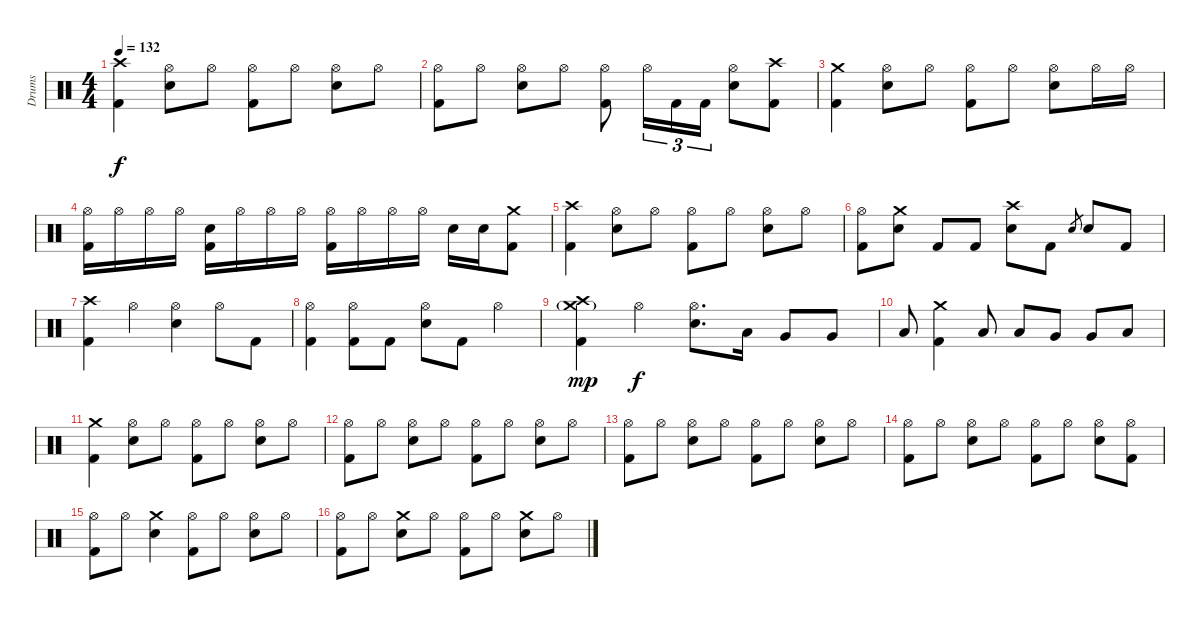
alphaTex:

\track ("Drums" "Drums") {instrument percussion}
\staff {score}
\articulation defaults
\ts (4 4)
\tempo 132
\clef neutral
\ks c
("Crash high (hit)" "Kick (hit) 2").4{dy f} ("Hi-Hat (open)" "Snare (hit) 2").8 "Hi-Hat (open)".8 ("Hi-Hat (open)" "Kick (hit) 2").8 "Hi-Hat (open)".8 ("Hi-Hat (open)" "Snare (hit) 2").8 "Hi-Hat (open)".8 |
("Hi-Hat (open)" "Kick (hit) 2").8 "Hi-Hat (open)".8 ("Hi-Hat (open)" "Snare (hit) 2").8 "Hi-Hat (open)".8 ("Hi-Hat (open)" "Kick (hit) 2").8 "Hi-Hat (open)".16{tu (3 2)} "Kick (hit) 2".16{tu (3 2)} "Kick (hit) 2".16{tu (3 2)} ("Hi-Hat (open)" "Snare (hit) 2").8 ("Crash high (hit)" "Kick (hit) 2").8 |
("Crash medium (hit)" "Kick (hit) 2").4 ("Hi-Hat (open)" "Snare (hit) 2").8 "Hi-Hat (open)".8 ("Hi-Hat (open)" "Kick (hit) 2").8 "Hi-Hat (open)".8 ("Hi-Hat (open)" "Snare (hit) 2").8 "Hi-Hat (open)".16 "Hi-Hat (open)".16 |
("Hi-Hat (open)" "Kick (hit) 2").16 "Hi-Hat (open)".16 "Hi-Hat (open)".16 "Hi-Hat (open)".16 ("Snare (hit) 2" "Kick (hit) 2").16 "Hi-Hat (open)".16 "Hi-Hat (open)".16 "Hi-Hat (open)".16 ("Hi-Hat (open)" "Kick (hit) 2").16 "Hi-Hat (open)".16 "Hi-Hat (open)".16 "Hi-Hat (open)".16 "Snare (hit) 2".16 "Snare (hit) 2".16 ("Crash medium (hit)" "Kick (hit) 2").8 |
("Crash high (hit)" "Kick (hit) 2").4 ("Hi-Hat (open)" "Snare (hit) 2").8 "Hi-Hat (open)".8 ("Hi-Hat (open)" "Kick (hit) 2").8 "Hi-Hat (open)".8 ("Hi-Hat (open)" "Snare (hit) 2").8 "Hi-Hat (open)".8 |
("Hi-Hat (open)" "Kick (hit) 2").8 ("Crash medium (hit)" "Snare (hit) 2").8 "Kick (hit) 2".8 "Kick (hit) 2".8 ("Crash high (hit)" "Snare (hit) 2").8 "Kick (hit) 2".8 "Snare (hit) 2".8{gr} "Snare (hit) 2".8 "Kick (hit) 2".8 |
("Crash high (hit)" "Kick (hit) 2").4 "Hi-Hat (open)".4 ("Hi-Hat (open)" "Snare (hit) 2").4 "Hi-Hat (open)".8 "Kick (hit) 2".8 |
("Hi-Hat (open)" "Kick (hit) 2").4 ("Hi-Hat (open)" "Kick (hit) 2").8 "Kick (hit) 2".8 ("Hi-Hat (open)" "Snare (hit) 2").8 "Kick (hit) 2".8 "Hi-Hat (open)".4 |
("Crash high (hit)" "Crash medium (hit)"{g} "Kick (hit) 2").4{dy mp} "Hi-Hat (open)".4{dy f} ("Hi-Hat (open)" "Snare (hit) 2").8{d} "Low Tom (hit)".16 "Very Low Tom (hit)".8 "Very Low Tom (hit)".8 |
"Low Floor Tom (hit)".8 ("Crash medium (hit)" "Kick (hit) 2").4 "Low Tom (hit)".8 "Low Tom (hit)".8 "Very Low Tom (hit)".8 "Very Low Tom (hit)".8 "Low Floor Tom (hit)".8 |
("Crash medium (hit)" "Kick (hit) 2").4 ("Hi-Hat (open)" "Snare (hit) 2").8 "Hi-Hat (open)".8 ("Hi-Hat (open)" "Kick (hit) 2").8 "Hi-Hat (open)".8 ("Hi-Hat (open)" "Snare (hit) 2").8 "Hi-Hat (open)".8 |
("Hi-Hat (open)" "Kick (hit) 2").8 "Hi-Hat (open)".8 ("Hi-Hat (open)" "Snare (hit) 2").8 "Hi-Hat (open)".8 ("Hi-Hat (open)" "Kick (hit) 2").8 "Hi-Hat (open)".8 ("Hi-Hat (open)" "Snare (hit) 2").8 "Hi-Hat (open)".8 |
("Hi-Hat (open)" "Kick (hit) 2").8 "Hi-Hat (open)".8 ("Hi-Hat (open)" "Snare (hit) 2").8 "Hi-Hat (open)".8 ("Hi-Hat (open)" "Kick (hit) 2").8 "Hi-Hat (open)".8 ("Hi-Hat (open)" "Snare (hit) 2").8 "Hi-Hat (open)".8 |
("Hi-Hat (open)" "Kick (hit) 2").8 "Hi-Hat (open)".8 ("Hi-Hat (open)" "Snare (hit) 2").8 "Hi-Hat (open)".8 ("Hi-Hat (open)" "Kick (hit) 2").8 "Hi-Hat (open)".8 ("Hi-Hat (open)" "Snare (hit) 2").8 ("Hi-Hat (open)" "Kick (hit) 2").8 |
("Hi-Hat (open)" "Kick (hit) 2").8 "Hi-Hat (open)".8 ("Crash medium (hit)" "Snare (hit) 2").4 ("Hi-Hat (open)" "Kick (hit) 2").8 "Hi-Hat (open)".8 ("Hi-Hat (open)" "Snare (hit) 2").8 "Hi-Hat (open)".8 |
("Hi-Hat (open)" "Kick (hit) 2").8 "Hi-Hat (open)".8 ("Crash medium (hit)" "Snare (hit) 2").8 "Hi-Hat (open)".8 ("Hi-Hat (open)" "Kick (hit) 2").8 "Hi-Hat (open)".8 ("Crash medium (hit)" "Snare (hit) 2").8 "Hi-Hat (open)".8
